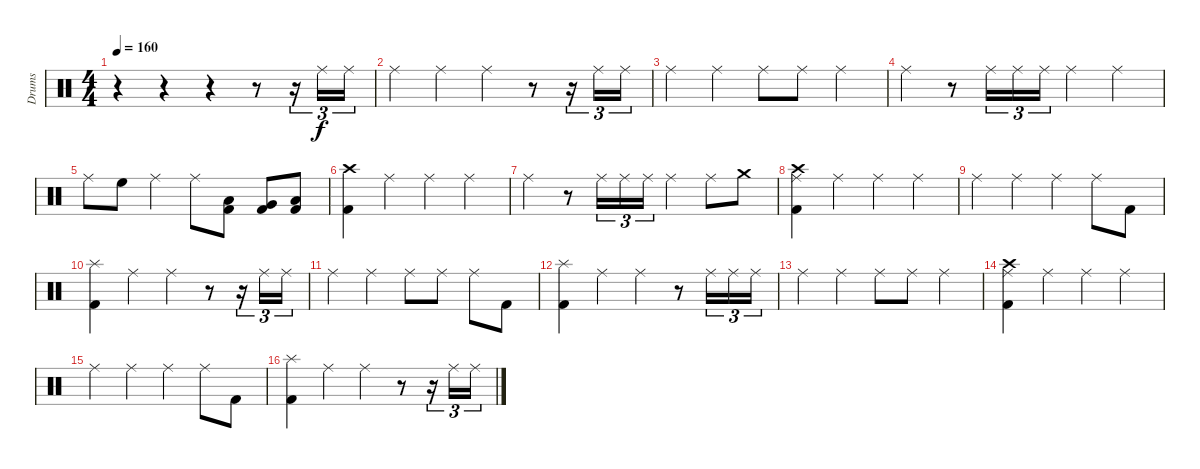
\track ("Drums" "Drums") {instrument percussion}
\staff {score}
\articulation defaults
\ts (4 4)
\tempo 160
\clef neutral
\ks c
r.4{dy f} r.4 r.4 r.8 r.16{tu (3 2)} "Ride (middle)".16{tu (3 2)} "Ride (middle)".16{tu (3 2)} |
"Ride (middle)".4 "Ride (middle)".4 "Ride (middle)".4 r.8 r.16{tu (3 2)} "Ride (middle)".16{tu (3 2)} "Ride (middle)".16{tu (3 2)} |
"Ride (middle)".4 "Ride (middle)".4 "Ride (middle)".8 "Ride (middle)".8 "Ride (middle)".4 |
"Ride (middle)".4 r.8 "Ride (middle)".16{tu (3 2)} "Ride (middle)".16{tu (3 2)} "Ride (middle)".16{tu (3 2)} "Ride (middle)".4 "Ride (middle)".4 |
"Ride (middle)".8 "High Floor Tom (hit)".8 "Ride (middle)".4 "Ride (middle)".8 ("Low Tom (hit)" "Kick (hit) 2").8 ("Very Low Tom (hit)" "Kick (hit) 2").8 ("Low Floor Tom (hit)" "Kick (hit) 2").8 |
("Crash high (hit)" "Kick (hit) 2").4 "Ride (middle)".4 "Ride (middle)".4 "Ride (middle)".4 |
"Ride (middle)".4 r.8 "Ride (middle)".16{tu (3 2)} "Ride (middle)".16{tu (3 2)} "Ride (middle)".16{tu (3 2)} "Ride (middle)".4 "Ride (middle)".8 "Crash medium (hit)".8 |
("Crash high (hit)" "Ride (middle)" "Kick (hit) 2").4 "Ride (middle)".4 "Ride (middle)".4 "Ride (middle)".4 |
"Ride (middle)".4 "Ride (middle)".4 "Ride (middle)".4 "Ride (middle)".8 "Kick (hit) 2".8 |
("Splash (hit)" "Kick (hit) 2").4 "Ride (middle)".4 "Ride (middle)".4 r.8 r.16{tu (3 2)} "Ride (middle)".16{tu (3 2)} "Ride (middle)".16{tu (3 2)} |
"Ride (middle)".4 "Ride (middle)".4 "Ride (middle)".8 "Ride (middle)".8 "Ride (middle)".8 "Kick (hit) 2".8 |
("Splash (hit)" "Kick (hit) 2").4 "Ride (middle)".4 "Ride (middle)".4 r.8 "Ride (middle)".16{tu (3 2)} "Ride (middle)".16{tu (3 2)} "Ride (middle)".16{tu (3 2)} |
"Ride (middle)".4 "Ride (middle)".4 "Ride (middle)".8 "Ride (middle)".8 "Ride (middle)".4 |
("Crash high (hit)" "Ride (middle)" "Kick (hit) 2").4 "Ride (middle)".4 "Ride (middle)".4 "Ride (middle)".4 |
"Ride (middle)".4 "Ride (middle)".4 "Ride (middle)".4 "Ride (middle)".8 "Kick (hit) 2".8 |
("Splash (hit)" "Kick (hit) 2").4 "Ride (middle)".4 "Ride (middle)".4 r.8 r.16{tu (3 2)} "Ride (middle)".16{tu (3 2)} "Ride (middle)".16{tu (3 2)}
